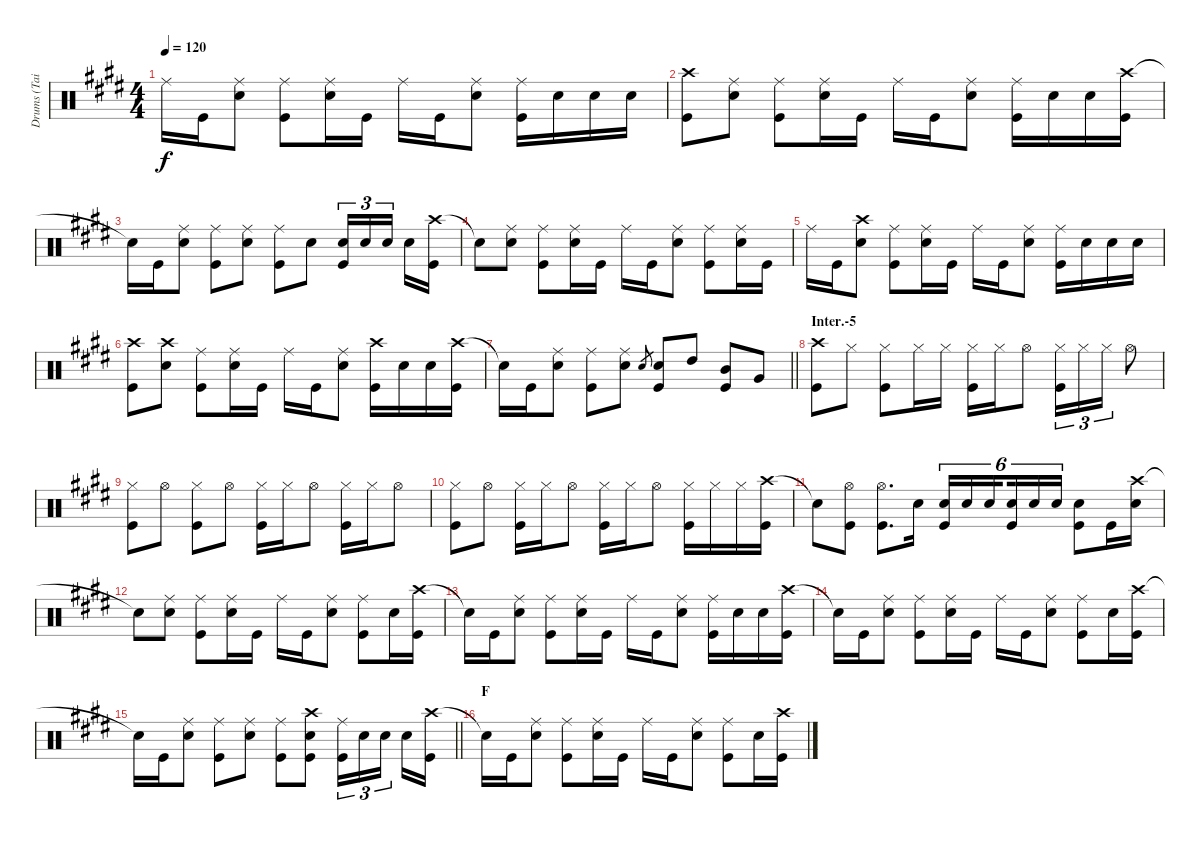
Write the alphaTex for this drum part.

\track ("Drums (Tainaka Ritsu)" "Drums (Tai") {instrument percussion}
\staff {score}
\articulation defaults
\ts (4 4)
\tempo 120
\clef neutral
\ks e "Ride (middle)".16{dy f} "Kick (hit)".16
("Ride (middle)" "Snare (hit) 2").8 ("Ride (middle)" "Kick (hit)").8 ("Ride (middle)" "Snare (hit) 2").16 "Kick (hit)".16 "Ride (middle)".16 "Kick (hit)".16 ("Ride (middle)" "Snare (hit) 2").8 ("Ride (middle)" "Kick (hit)").16 "Snare (hit) 2".16 "Snare (hit) 2".16 "Snare (hit) 2".16 |
("Crash high (hit)" "Kick (hit)").8 ("Ride (middle)" "Snare (hit) 2").8 ("Ride (middle)" "Kick (hit)").8 ("Ride (middle)" "Snare (hit) 2").16 "Kick (hit)".16 "Ride (middle)".16 "Kick (hit)".16 ("Ride (middle)" "Snare (hit) 2").8 ("Ride (middle)" "Kick (hit)").16 "Snare (hit) 2".16 "Snare (hit) 2".16 ("Crash high (hit)" "Kick (hit)").16 |
"Snare (hit)"{t}.16 "Kick (hit)".16 ("Ride (middle)" "Snare (hit) 2").8 ("Ride (middle)" "Kick (hit)").8 ("Ride (middle)" "Snare (hit) 2").8 ("Ride (middle)" "Kick (hit)").8 "Snare (hit) 2".8 ("Snare (hit) 2" "Kick (hit)").16{tu (3 2)} "Snare (hit) 2".16{tu (3 2)} "Snare (hit) 2".16{tu (3 2) beam splitsecondary} "Snare (hit) 2".16 ("Crash high (hit)" "Kick (hit)").16 |
"Snare (hit)"{t}.8 ("Ride (middle)" "Snare (hit) 2").8 ("Ride (middle)" "Kick (hit)").8 ("Ride (middle)" "Snare (hit) 2").16 "Kick (hit)".16 "Ride (middle)".16 "Kick (hit)".16 ("Ride (middle)" "Snare (hit) 2").8 ("Ride (middle)" "Kick (hit)").8 ("Ride (middle)" "Snare (hit) 2").16 "Kick (hit)".16 |
"Ride (middle)".16 "Kick (hit)".16 ("Crash high (hit)" "Snare (hit) 2").8 ("Ride (middle)" "Kick (hit)").8 ("Ride (middle)" "Snare (hit) 2").16 "Kick (hit)".16 "Ride (middle)".16 "Kick (hit)".16 ("Ride (middle)" "Snare (hit) 2").8 ("Ride (middle)" "Kick (hit)").16 "Snare (hit) 2".16 "Snare (hit) 2".16 "Snare (hit) 2".16 |
("Crash high (hit)" "Kick (hit)").8 ("Crash high (hit)" "Snare (hit) 2").8 ("Ride (middle)" "Kick (hit)").8 ("Ride (middle)" "Snare (hit) 2").16 "Kick (hit)".16 "Ride (middle)".16 "Kick (hit)".16 ("Ride (middle)" "Snare (hit) 2").8 ("Crash high (hit)" "Kick (hit)").16 "Snare (hit) 2".16 "Snare (hit) 2".16 ("Crash high (hit)" "Kick (hit)").16 |
\barLineRight lightlight "Snare (hit)"{t}.16 "Kick (hit)".16
("Ride (middle)" "Snare (hit) 2").8 ("Ride (middle)" "Kick (hit)").8 ("Ride (middle)" "Snare (hit) 2").8 "Snare (hit) 2".8{gr} ("Snare (hit) 2" "Kick (hit)").8 "High Tom (hit)".8 ("Mid Tom (hit)" "Kick (hit)").8 "Very Low Tom (hit)".8 |
\section ("" "Inter.-5")
("Crash high (hit)" "Kick (hit)").8 "Hi-Hat (closed)".8 ("Hi-Hat (closed)" "Kick (hit)").8 "Hi-Hat (closed)".16 "Hi-Hat (closed)".16 ("Hi-Hat (closed)" "Kick (hit)").16 "Hi-Hat (closed)".16 "Hi-Hat (open)".8 ("Hi-Hat (closed)" "Kick (hit)").16{tu (3 2)} "Hi-Hat (closed)".16{tu (3 2)} "Hi-Hat (closed)".16{tu (3 2)} "Hi-Hat (open)".8 |
("Hi-Hat (closed)" "Kick (hit)").8 "Hi-Hat (open)".8 ("Hi-Hat (closed)" "Kick (hit)").8 "Hi-Hat (open)".8 ("Hi-Hat (closed)" "Kick (hit)").16 "Hi-Hat (closed)".16 "Hi-Hat (open)".8 ("Hi-Hat (closed)" "Kick (hit)").16 "Hi-Hat (closed)".16 "Hi-Hat (open)".8 |
("Hi-Hat (closed)" "Kick (hit)").8 "Hi-Hat (open)".8 ("Hi-Hat (closed)" "Kick (hit)").16 "Hi-Hat (closed)".16 "Hi-Hat (open)".8 ("Hi-Hat (closed)" "Kick (hit)").16 "Hi-Hat (closed)".16 "Hi-Hat (open)".8 ("Hi-Hat (closed)" "Kick (hit)").16 "Hi-Hat (closed)".16 "Hi-Hat (closed)".16 ("Crash high (hit)" "Kick (hit)").16 |
"Snare (hit)"{t}.8 ("Hi-Hat (open)" "Kick (hit)").8 ("Hi-Hat (open)" "Kick (hit)").8{d} "Snare (hit) 2".16 ("Snare (hit) 2" "Kick (hit)").16{tu (6 4)} "Snare (hit) 2".16{tu (6 4)} "Snare (hit) 2".16{tu (6 4) beam splitsecondary} ("Snare (hit) 2" "Kick (hit)").16{tu (6 4)} "Snare (hit) 2".16{tu (6 4)} "Snare (hit) 2".16{tu (6 4)} ("Snare (hit) 2" "Kick (hit)").8 "Kick (hit)".16 ("Crash high (hit)" "Snare (hit) 2").16 |
"Snare (hit)"{t}.8 ("Ride (middle)" "Snare (hit) 2").8 ("Ride (middle)" "Kick (hit)").8 ("Ride (middle)" "Snare (hit) 2").16 "Kick (hit)".16 "Ride (middle)".16 "Kick (hit)".16 ("Ride (middle)" "Snare (hit) 2").8 ("Ride (middle)" "Kick (hit)").8 "Snare (hit) 2".16 ("Crash high (hit)" "Kick (hit)").16 |
"Snare (hit)"{t}.16 "Kick (hit)".16 ("Ride (middle)" "Snare (hit) 2").8 ("Ride (middle)" "Kick (hit)").8 ("Ride (middle)" "Snare (hit) 2").16 "Kick (hit)".16 "Ride (middle)".16 "Kick (hit)".16 ("Ride (middle)" "Snare (hit) 2").8 ("Ride (middle)" "Kick (hit)").16 "Snare (hit) 2".16 "Snare (hit) 2".16 ("Crash high (hit)" "Kick (hit)").16 |
"Snare (hit)"{t}.16 "Kick (hit)".16 ("Ride (middle)" "Snare (hit) 2").8 ("Ride (middle)" "Kick (hit)").8 ("Ride (middle)" "Snare (hit) 2").16 "Kick (hit)".16 "Ride (middle)".16 "Kick (hit)".16 ("Ride (middle)" "Snare (hit) 2").8 ("Ride (middle)" "Kick (hit)").8 "Snare (hit) 2".16 ("Crash high (hit)" "Kick (hit)").16 |
\barLineRight lightlight "Snare (hit)"{t}.16 "Kick (hit)".16
("Ride (middle)" "Snare (hit) 2").8 ("Ride (middle)" "Kick (hit)").8 ("Ride (middle)" "Snare (hit) 2").8 ("Ride (middle)" "Kick (hit)").8 ("Crash high (hit)" "Snare (hit) 2" "Kick (hit)").8 ("Ride (middle)" "Kick (hit)").16{tu (3 2)} "Snare (hit) 2".16{tu (3 2)} "Snare (hit) 2".16{tu (3 2) beam splitsecondary} "Snare (hit) 2".16 ("Crash high (hit)" "Kick (hit)").16 |
\section ("" "F")
"Snare (hit)"{t}.16 "Kick (hit)".16 ("Ride (middle)" "Snare (hit) 2").8 ("Ride (middle)" "Kick (hit)").8 ("Ride (middle)" "Snare (hit) 2").16 "Kick (hit)".16 "Ride (middle)".16 "Kick (hit)".16 ("Ride (middle)" "Snare (hit) 2").8 ("Ride (middle)" "Kick (hit)").8 "Snare (hit) 2".16 ("Crash high (hit)" "Kick (hit)").16
